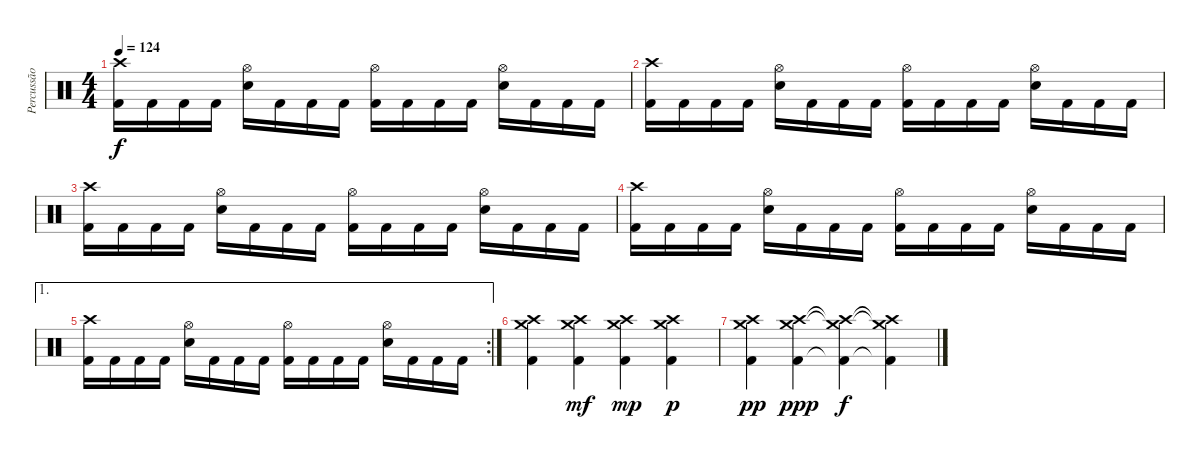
\track ("Percussão" "Percussão") {instrument percussion}
\staff {score}
\articulation defaults
\ts (4 4)
\tempo 124
\clef neutral
\ks c
("Crash high (hit)" "Kick (hit) 2").16{dy f} "Kick (hit) 2".16 "Kick (hit) 2".16 "Kick (hit) 2".16 ("Hi-Hat (open)" "Electric Snare (hit)").16 "Kick (hit) 2".16 "Kick (hit) 2".16 "Kick (hit) 2".16 ("Hi-Hat (open)" "Kick (hit) 2").16 "Kick (hit) 2".16 "Kick (hit) 2".16 "Kick (hit) 2".16 ("Hi-Hat (open)" "Electric Snare (hit)").16 "Kick (hit) 2".16 "Kick (hit) 2".16 "Kick (hit) 2".16 |
("Crash high (hit)" "Kick (hit) 2").16 "Kick (hit) 2".16 "Kick (hit) 2".16 "Kick (hit) 2".16 ("Hi-Hat (open)" "Electric Snare (hit)").16 "Kick (hit) 2".16 "Kick (hit) 2".16 "Kick (hit) 2".16 ("Hi-Hat (open)" "Kick (hit) 2").16 "Kick (hit) 2".16 "Kick (hit) 2".16 "Kick (hit) 2".16 ("Hi-Hat (open)" "Electric Snare (hit)").16 "Kick (hit) 2".16 "Kick (hit) 2".16 "Kick (hit) 2".16 |
("Crash high (hit)" "Kick (hit) 2").16 "Kick (hit) 2".16 "Kick (hit) 2".16 "Kick (hit) 2".16 ("Hi-Hat (open)" "Electric Snare (hit)").16 "Kick (hit) 2".16 "Kick (hit) 2".16 "Kick (hit) 2".16 ("Hi-Hat (open)" "Kick (hit) 2").16 "Kick (hit) 2".16 "Kick (hit) 2".16 "Kick (hit) 2".16 ("Hi-Hat (open)" "Electric Snare (hit)").16 "Kick (hit) 2".16 "Kick (hit) 2".16 "Kick (hit) 2".16 |
("Crash high (hit)" "Kick (hit) 2").16 "Kick (hit) 2".16 "Kick (hit) 2".16 "Kick (hit) 2".16 ("Hi-Hat (open)" "Electric Snare (hit)").16 "Kick (hit) 2".16 "Kick (hit) 2".16 "Kick (hit) 2".16 ("Hi-Hat (open)" "Kick (hit) 2").16 "Kick (hit) 2".16 "Kick (hit) 2".16 "Kick (hit) 2".16 ("Hi-Hat (open)" "Electric Snare (hit)").16 "Kick (hit) 2".16 "Kick (hit) 2".16 "Kick (hit) 2".16 |
\ae 1
\rc 2
("Crash high (hit)" "Kick (hit) 2").16 "Kick (hit) 2".16 "Kick (hit) 2".16 "Kick (hit) 2".16 ("Hi-Hat (open)" "Electric Snare (hit)").16 "Kick (hit) 2".16 "Kick (hit) 2".16 "Kick (hit) 2".16 ("Hi-Hat (open)" "Kick (hit) 2").16 "Kick (hit) 2".16 "Kick (hit) 2".16 "Kick (hit) 2".16 ("Hi-Hat (open)" "Electric Snare (hit)").16 "Kick (hit) 2".16 "Kick (hit) 2".16 "Kick (hit) 2".16 |
("Crash medium (hit)" "Crash high (hit)" "Kick (hit) 2").4 ("Crash medium (hit)" "Crash high (hit)" "Kick (hit) 2").4{dy mf} ("Crash medium (hit)" "Crash high (hit)" "Kick (hit) 2").4{dy mp} ("Crash medium (hit)" "Crash high (hit)" "Kick (hit) 2").4{dy p} |
("Crash medium (hit)" "Crash high (hit)" "Kick (hit) 2").4{dy pp} ("Crash medium (hit)" "Crash high (hit)" "Kick (hit) 2").4{dy ppp} ("Crash medium (hit)"{t} "Crash high (hit)"{t} "Kick (hit) 2"{t}).4{dy f} ("Crash medium (hit)"{t} "Crash high (hit)"{t} "Kick (hit) 2"{t}).4
